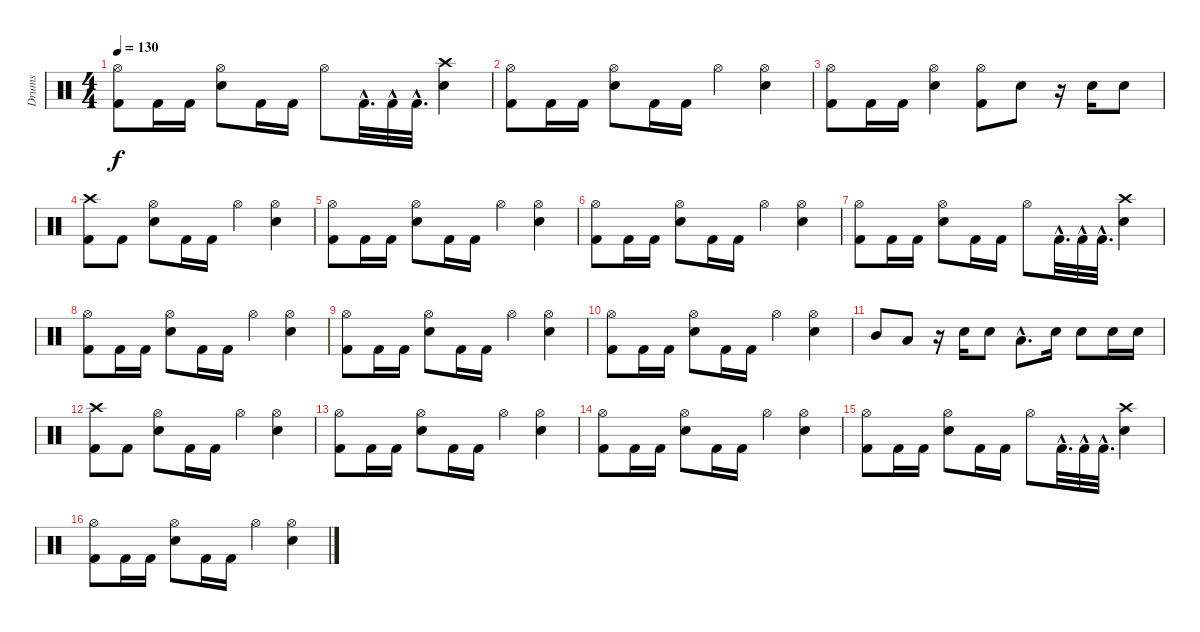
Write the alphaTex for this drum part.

\track ("Drums" "Drums") {instrument percussion}
\staff {score}
\articulation defaults
\ts (4 4)
\tempo 130
\clef neutral
\ks c
("Kick (hit) 2" "Hi-Hat (open)").8{dy f} "Kick (hit) 2".16 "Kick (hit) 2".16 ("Snare (hit) 2" "Hi-Hat (open)").8 "Kick (hit) 2".16 "Kick (hit) 2".16 "Hi-Hat (open)".8 "Kick (hit) 2"{hac}.32{d} "Kick (hit) 2"{hac}.32 "Kick (hit) 2"{hac}.32{d} ("Snare (hit) 2" "Crash high (hit)").4 |
("Hi-Hat (open)" "Kick (hit) 2").8 "Kick (hit) 2".16 "Kick (hit) 2".16 ("Snare (hit) 2" "Hi-Hat (open)").8 "Kick (hit) 2".16 "Kick (hit) 2".16 "Hi-Hat (open)".4 ("Snare (hit) 2" "Hi-Hat (open)").4 |
("Kick (hit) 2" "Hi-Hat (open)").8 "Kick (hit) 2".16 "Kick (hit) 2".16 ("Snare (hit) 2" "Hi-Hat (open)").4 ("Hi-Hat (open)" "Kick (hit) 2").8 "Snare (hit) 2".8 r.16 "Snare (hit) 2".16 "Snare (hit) 2".8 |
("Crash high (hit)" "Kick (hit) 2").8 "Kick (hit) 2".8 ("Hi-Hat (open)" "Snare (hit) 2").8 "Kick (hit) 2".16 "Kick (hit) 2".16 "Hi-Hat (open)".4 ("Hi-Hat (open)" "Snare (hit) 2").4 |
("Kick (hit) 2" "Hi-Hat (open)").8 "Kick (hit) 2".16 "Kick (hit) 2".16 ("Hi-Hat (open)" "Snare (hit) 2").8 "Kick (hit) 2".16 "Kick (hit) 2".16 "Hi-Hat (open)".4 ("Snare (hit) 2" "Hi-Hat (open)").4 |
("Kick (hit) 2" "Hi-Hat (open)").8 "Kick (hit) 2".16 "Kick (hit) 2".16 ("Snare (hit) 2" "Hi-Hat (open)").8 "Kick (hit) 2".16 "Kick (hit) 2".16 "Hi-Hat (open)".4 ("Snare (hit) 2" "Hi-Hat (open)").4 |
("Hi-Hat (open)" "Kick (hit) 2").8 "Kick (hit) 2".16 "Kick (hit) 2".16 ("Hi-Hat (open)" "Snare (hit) 2").8 "Kick (hit) 2".16 "Kick (hit) 2".16 "Hi-Hat (open)".8 "Kick (hit) 2"{hac}.32{d} "Kick (hit) 2"{hac}.32 "Kick (hit) 2"{hac}.32{d} ("Crash high (hit)" "Snare (hit) 2").4 |
("Kick (hit) 2" "Hi-Hat (open)").8 "Kick (hit) 2".16 "Kick (hit) 2".16 ("Hi-Hat (open)" "Snare (hit) 2").8 "Kick (hit) 2".16 "Kick (hit) 2".16 "Hi-Hat (open)".4 ("Snare (hit) 2" "Hi-Hat (open)").4 |
("Hi-Hat (open)" "Kick (hit) 2").8 "Kick (hit) 2".16 "Kick (hit) 2".16 ("Hi-Hat (open)" "Snare (hit) 2").8 "Kick (hit) 2".16 "Kick (hit) 2".16 "Hi-Hat (open)".4 ("Hi-Hat (open)" "Snare (hit) 2").4 |
("Hi-Hat (open)" "Kick (hit) 2").8 "Kick (hit) 2".16 "Kick (hit) 2".16 ("Hi-Hat (open)" "Snare (hit) 2").8 "Kick (hit) 2".16 "Kick (hit) 2".16 "Hi-Hat (open)".4 ("Snare (hit) 2" "Hi-Hat (open)").4 |
"Mid Tom (hit)".8 "Low Tom (hit)".8 r.16 "Snare (hit) 2".16 "Snare (hit) 2".8 "Low Tom (hit)"{hac}.8{d} "Snare (hit) 2".16 "Snare (hit) 2".8 "Snare (hit) 2".16 "Snare (hit) 2".16 |
("Kick (hit) 2" "Crash high (hit)").8 "Kick (hit) 2".8 ("Snare (hit) 2" "Hi-Hat (open)").8 "Kick (hit) 2".16 "Kick (hit) 2".16 "Hi-Hat (open)".4 ("Hi-Hat (open)" "Snare (hit) 2").4 |
("Hi-Hat (open)" "Kick (hit) 2").8 "Kick (hit) 2".16 "Kick (hit) 2".16 ("Hi-Hat (open)" "Snare (hit) 2").8 "Kick (hit) 2".16 "Kick (hit) 2".16 "Hi-Hat (open)".4 ("Hi-Hat (open)" "Snare (hit) 2").4 |
("Hi-Hat (open)" "Kick (hit) 2").8 "Kick (hit) 2".16 "Kick (hit) 2".16 ("Snare (hit) 2" "Hi-Hat (open)").8 "Kick (hit) 2".16 "Kick (hit) 2".16 "Hi-Hat (open)".4 ("Snare (hit) 2" "Hi-Hat (open)").4 |
("Kick (hit) 2" "Hi-Hat (open)").8 "Kick (hit) 2".16 "Kick (hit) 2".16 ("Hi-Hat (open)" "Snare (hit) 2").8 "Kick (hit) 2".16 "Kick (hit) 2".16 "Hi-Hat (open)".8 "Kick (hit) 2"{hac}.32{d} "Kick (hit) 2"{hac}.32 "Kick (hit) 2"{hac}.32{d} ("Crash high (hit)" "Snare (hit) 2").4 |
("Hi-Hat (open)" "Kick (hit) 2").8 "Kick (hit) 2".16 "Kick (hit) 2".16 ("Snare (hit) 2" "Hi-Hat (open)").8 "Kick (hit) 2".16 "Kick (hit) 2".16 "Hi-Hat (open)".4 ("Snare (hit) 2" "Hi-Hat (open)").4
